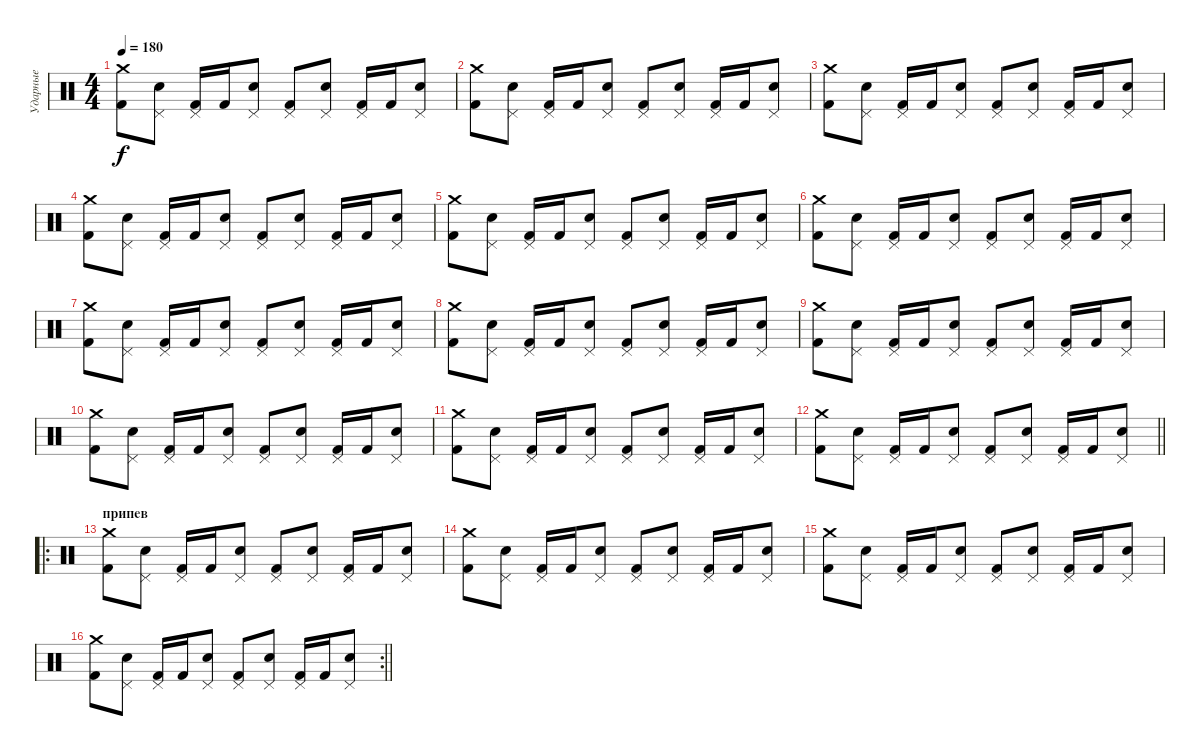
\track ("Ударные" "Ударные") {instrument percussion}
\staff {score}
\articulation defaults
\ts (4 4)
\tempo 180
\clef neutral
\ks c
("Crash medium (hit)" "Kick (hit) 2").8{dy f} ("Pedal Hi-Hat (hit)" "Electric Snare (hit)").8 ("Pedal Hi-Hat (hit)" "Kick (hit) 2").16 "Kick (hit) 2".16 ("Pedal Hi-Hat (hit)" "Electric Snare (hit)").8 ("Pedal Hi-Hat (hit)" "Kick (hit) 2").8 ("Pedal Hi-Hat (hit)" "Electric Snare (hit)").8 ("Pedal Hi-Hat (hit)" "Kick (hit) 2").16 "Kick (hit) 2".16 ("Pedal Hi-Hat (hit)" "Electric Snare (hit)").8 |
("Crash medium (hit)" "Kick (hit) 2").8 ("Pedal Hi-Hat (hit)" "Electric Snare (hit)").8 ("Pedal Hi-Hat (hit)" "Kick (hit) 2").16 "Kick (hit) 2".16 ("Pedal Hi-Hat (hit)" "Electric Snare (hit)").8 ("Pedal Hi-Hat (hit)" "Kick (hit) 2").8 ("Pedal Hi-Hat (hit)" "Electric Snare (hit)").8 ("Pedal Hi-Hat (hit)" "Kick (hit) 2").16 "Kick (hit) 2".16 ("Pedal Hi-Hat (hit)" "Electric Snare (hit)").8 |
("Crash medium (hit)" "Kick (hit) 2").8 ("Pedal Hi-Hat (hit)" "Electric Snare (hit)").8 ("Pedal Hi-Hat (hit)" "Kick (hit) 2").16 "Kick (hit) 2".16 ("Pedal Hi-Hat (hit)" "Electric Snare (hit)").8 ("Pedal Hi-Hat (hit)" "Kick (hit) 2").8 ("Pedal Hi-Hat (hit)" "Electric Snare (hit)").8 ("Pedal Hi-Hat (hit)" "Kick (hit) 2").16 "Kick (hit) 2".16 ("Pedal Hi-Hat (hit)" "Electric Snare (hit)").8 |
("Crash medium (hit)" "Kick (hit) 2").8 ("Pedal Hi-Hat (hit)" "Electric Snare (hit)").8 ("Pedal Hi-Hat (hit)" "Kick (hit) 2").16 "Kick (hit) 2".16 ("Pedal Hi-Hat (hit)" "Electric Snare (hit)").8 ("Pedal Hi-Hat (hit)" "Kick (hit) 2").8 ("Pedal Hi-Hat (hit)" "Electric Snare (hit)").8 ("Pedal Hi-Hat (hit)" "Kick (hit) 2").16 "Kick (hit) 2".16 ("Pedal Hi-Hat (hit)" "Electric Snare (hit)").8 |
("Crash medium (hit)" "Kick (hit) 2").8 ("Pedal Hi-Hat (hit)" "Electric Snare (hit)").8 ("Pedal Hi-Hat (hit)" "Kick (hit) 2").16 "Kick (hit) 2".16 ("Pedal Hi-Hat (hit)" "Electric Snare (hit)").8 ("Pedal Hi-Hat (hit)" "Kick (hit) 2").8 ("Pedal Hi-Hat (hit)" "Electric Snare (hit)").8 ("Pedal Hi-Hat (hit)" "Kick (hit) 2").16 "Kick (hit) 2".16 ("Pedal Hi-Hat (hit)" "Electric Snare (hit)").8 |
("Crash medium (hit)" "Kick (hit) 2").8 ("Pedal Hi-Hat (hit)" "Electric Snare (hit)").8 ("Pedal Hi-Hat (hit)" "Kick (hit) 2").16 "Kick (hit) 2".16 ("Pedal Hi-Hat (hit)" "Electric Snare (hit)").8 ("Pedal Hi-Hat (hit)" "Kick (hit) 2").8 ("Pedal Hi-Hat (hit)" "Electric Snare (hit)").8 ("Pedal Hi-Hat (hit)" "Kick (hit) 2").16 "Kick (hit) 2".16 ("Pedal Hi-Hat (hit)" "Electric Snare (hit)").8 |
("Crash medium (hit)" "Kick (hit) 2").8 ("Pedal Hi-Hat (hit)" "Electric Snare (hit)").8 ("Pedal Hi-Hat (hit)" "Kick (hit) 2").16 "Kick (hit) 2".16 ("Pedal Hi-Hat (hit)" "Electric Snare (hit)").8 ("Pedal Hi-Hat (hit)" "Kick (hit) 2").8 ("Pedal Hi-Hat (hit)" "Electric Snare (hit)").8 ("Pedal Hi-Hat (hit)" "Kick (hit) 2").16 "Kick (hit) 2".16 ("Pedal Hi-Hat (hit)" "Electric Snare (hit)").8 |
("Crash medium (hit)" "Kick (hit) 2").8 ("Pedal Hi-Hat (hit)" "Electric Snare (hit)").8 ("Pedal Hi-Hat (hit)" "Kick (hit) 2").16 "Kick (hit) 2".16 ("Pedal Hi-Hat (hit)" "Electric Snare (hit)").8 ("Pedal Hi-Hat (hit)" "Kick (hit) 2").8 ("Pedal Hi-Hat (hit)" "Electric Snare (hit)").8 ("Pedal Hi-Hat (hit)" "Kick (hit) 2").16 "Kick (hit) 2".16 ("Pedal Hi-Hat (hit)" "Electric Snare (hit)").8 |
("Crash medium (hit)" "Kick (hit) 2").8 ("Pedal Hi-Hat (hit)" "Electric Snare (hit)").8 ("Pedal Hi-Hat (hit)" "Kick (hit) 2").16 "Kick (hit) 2".16 ("Pedal Hi-Hat (hit)" "Electric Snare (hit)").8 ("Pedal Hi-Hat (hit)" "Kick (hit) 2").8 ("Pedal Hi-Hat (hit)" "Electric Snare (hit)").8 ("Pedal Hi-Hat (hit)" "Kick (hit) 2").16 "Kick (hit) 2".16 ("Pedal Hi-Hat (hit)" "Electric Snare (hit)").8 |
("Crash medium (hit)" "Kick (hit) 2").8 ("Pedal Hi-Hat (hit)" "Electric Snare (hit)").8 ("Pedal Hi-Hat (hit)" "Kick (hit) 2").16 "Kick (hit) 2".16 ("Pedal Hi-Hat (hit)" "Electric Snare (hit)").8 ("Pedal Hi-Hat (hit)" "Kick (hit) 2").8 ("Pedal Hi-Hat (hit)" "Electric Snare (hit)").8 ("Pedal Hi-Hat (hit)" "Kick (hit) 2").16 "Kick (hit) 2".16 ("Pedal Hi-Hat (hit)" "Electric Snare (hit)").8 |
("Crash medium (hit)" "Kick (hit) 2").8 ("Pedal Hi-Hat (hit)" "Electric Snare (hit)").8 ("Pedal Hi-Hat (hit)" "Kick (hit) 2").16 "Kick (hit) 2".16 ("Pedal Hi-Hat (hit)" "Electric Snare (hit)").8 ("Pedal Hi-Hat (hit)" "Kick (hit) 2").8 ("Pedal Hi-Hat (hit)" "Electric Snare (hit)").8 ("Pedal Hi-Hat (hit)" "Kick (hit) 2").16 "Kick (hit) 2".16 ("Pedal Hi-Hat (hit)" "Electric Snare (hit)").8 |
\barLineRight lightlight
("Crash medium (hit)" "Kick (hit) 2").8 ("Pedal Hi-Hat (hit)" "Electric Snare (hit)").8 ("Pedal Hi-Hat (hit)" "Kick (hit) 2").16 "Kick (hit) 2".16 ("Pedal Hi-Hat (hit)" "Electric Snare (hit)").8 ("Pedal Hi-Hat (hit)" "Kick (hit) 2").8 ("Pedal Hi-Hat (hit)" "Electric Snare (hit)").8 ("Pedal Hi-Hat (hit)" "Kick (hit) 2").16 "Kick (hit) 2".16 ("Pedal Hi-Hat (hit)" "Electric Snare (hit)").8 |
\ro
\section ("" "припев")
("Crash medium (hit)" "Kick (hit) 2").8 ("Pedal Hi-Hat (hit)" "Electric Snare (hit)").8 ("Pedal Hi-Hat (hit)" "Kick (hit) 2").16 "Kick (hit) 2".16 ("Pedal Hi-Hat (hit)" "Electric Snare (hit)").8 ("Pedal Hi-Hat (hit)" "Kick (hit) 2").8 ("Pedal Hi-Hat (hit)" "Electric Snare (hit)").8 ("Pedal Hi-Hat (hit)" "Kick (hit) 2").16 "Kick (hit) 2".16 ("Pedal Hi-Hat (hit)" "Electric Snare (hit)").8 |
("Crash medium (hit)" "Kick (hit) 2").8 ("Pedal Hi-Hat (hit)" "Electric Snare (hit)").8 ("Pedal Hi-Hat (hit)" "Kick (hit) 2").16 "Kick (hit) 2".16 ("Pedal Hi-Hat (hit)" "Electric Snare (hit)").8 ("Pedal Hi-Hat (hit)" "Kick (hit) 2").8 ("Pedal Hi-Hat (hit)" "Electric Snare (hit)").8 ("Pedal Hi-Hat (hit)" "Kick (hit) 2").16 "Kick (hit) 2".16 ("Pedal Hi-Hat (hit)" "Electric Snare (hit)").8 |
("Crash medium (hit)" "Kick (hit) 2").8 ("Pedal Hi-Hat (hit)" "Electric Snare (hit)").8 ("Pedal Hi-Hat (hit)" "Kick (hit) 2").16 "Kick (hit) 2".16 ("Pedal Hi-Hat (hit)" "Electric Snare (hit)").8 ("Pedal Hi-Hat (hit)" "Kick (hit) 2").8 ("Pedal Hi-Hat (hit)" "Electric Snare (hit)").8 ("Pedal Hi-Hat (hit)" "Kick (hit) 2").16 "Kick (hit) 2".16 ("Pedal Hi-Hat (hit)" "Electric Snare (hit)").8 |
\rc 2
\barLineRight lightlight
("Crash medium (hit)" "Kick (hit) 2").8 ("Pedal Hi-Hat (hit)" "Electric Snare (hit)").8 ("Pedal Hi-Hat (hit)" "Kick (hit) 2").16 "Kick (hit) 2".16 ("Pedal Hi-Hat (hit)" "Electric Snare (hit)").8 ("Pedal Hi-Hat (hit)" "Kick (hit) 2").8 ("Pedal Hi-Hat (hit)" "Electric Snare (hit)").8 ("Pedal Hi-Hat (hit)" "Kick (hit) 2").16 "Kick (hit) 2".16 ("Pedal Hi-Hat (hit)" "Electric Snare (hit)").8
